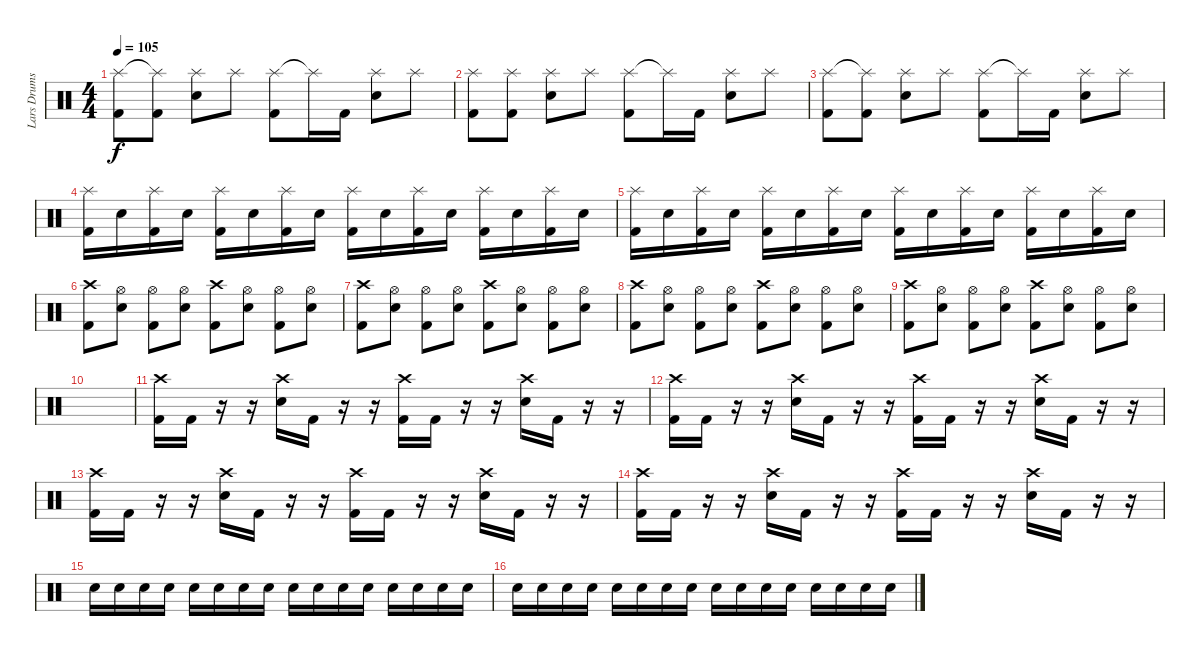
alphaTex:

\track ("Lars Drums" "Lars Drums") {instrument percussion}
\staff {score}
\articulation defaults
\ts (4 4)
\tempo 105
\clef neutral
\ks c
("Splash (hit)" "Kick (hit) 2").8{dy f} ("Splash (hit)"{t} "Kick (hit) 2").8 ("Splash (hit)" "Snare (hit) 2").8 "Splash (hit)".8 ("Splash (hit)" "Kick (hit) 2").8 "Splash (hit)"{t}.16 "Kick (hit) 2".16 ("Splash (hit)" "Snare (hit) 2").8 "Splash (hit)".8 |
("Splash (hit)" "Kick (hit) 2").8 ("Splash (hit)" "Kick (hit) 2").8 ("Splash (hit)" "Snare (hit) 2").8 "Splash (hit)".8 ("Splash (hit)" "Kick (hit) 2").8 "Splash (hit)"{t}.16 "Kick (hit) 2".16 ("Splash (hit)" "Snare (hit) 2").8 "Splash (hit)".8 |
("Splash (hit)" "Kick (hit) 2").8 ("Splash (hit)"{t} "Kick (hit) 2").8 ("Splash (hit)" "Snare (hit) 2").8 "Splash (hit)".8 ("Splash (hit)" "Kick (hit) 2").8 "Splash (hit)"{t}.16 "Kick (hit) 2".16 ("Splash (hit)" "Snare (hit) 2").8 "Splash (hit)".8 |
("Splash (hit)" "Kick (hit) 2").16 "Snare (hit) 2".16 ("Splash (hit)" "Kick (hit) 2").16 "Snare (hit) 2".16 ("Splash (hit)" "Kick (hit) 2").16 "Snare (hit) 2".16 ("Splash (hit)" "Kick (hit) 2").16 "Snare (hit) 2".16 ("Splash (hit)" "Kick (hit) 2").16 "Snare (hit) 2".16 ("Splash (hit)" "Kick (hit) 2").16 "Snare (hit) 2".16 ("Splash (hit)" "Kick (hit) 2").16 "Snare (hit) 2".16 ("Splash (hit)" "Kick (hit) 2").16 "Snare (hit) 2".16 |
("Splash (hit)" "Kick (hit) 2").16 "Snare (hit) 2".16 ("Splash (hit)" "Kick (hit) 2").16 "Snare (hit) 2".16 ("Splash (hit)" "Kick (hit) 2").16 "Snare (hit) 2".16 ("Splash (hit)" "Kick (hit) 2").16 "Snare (hit) 2".16 ("Splash (hit)" "Kick (hit) 2").16 "Snare (hit) 2".16 ("Splash (hit)" "Kick (hit) 2").16 "Snare (hit) 2".16 ("Splash (hit)" "Kick (hit) 2").16 "Snare (hit) 2".16 ("Splash (hit)" "Kick (hit) 2").16 "Snare (hit) 2".16 |
("Crash high (hit)" "Kick (hit) 2").8 ("Hi-Hat (open)" "Snare (hit) 2").8 ("Hi-Hat (open)" "Kick (hit) 2").8 ("Hi-Hat (open)" "Snare (hit) 2").8 ("Crash high (hit)" "Kick (hit) 2").8 ("Hi-Hat (open)" "Snare (hit) 2").8 ("Hi-Hat (open)" "Kick (hit) 2").8 ("Hi-Hat (open)" "Snare (hit) 2").8 |
("Crash high (hit)" "Kick (hit) 2").8 ("Hi-Hat (open)" "Snare (hit) 2").8 ("Hi-Hat (open)" "Kick (hit) 2").8 ("Hi-Hat (open)" "Snare (hit) 2").8 ("Crash high (hit)" "Kick (hit) 2").8 ("Hi-Hat (open)" "Snare (hit) 2").8 ("Hi-Hat (open)" "Kick (hit) 2").8 ("Hi-Hat (open)" "Snare (hit) 2").8 |
("Crash high (hit)" "Kick (hit) 2").8 ("Hi-Hat (open)" "Snare (hit) 2").8 ("Hi-Hat (open)" "Kick (hit) 2").8 ("Hi-Hat (open)" "Snare (hit) 2").8 ("Crash high (hit)" "Kick (hit) 2").8 ("Hi-Hat (open)" "Snare (hit) 2").8 ("Hi-Hat (open)" "Kick (hit) 2").8 ("Hi-Hat (open)" "Snare (hit) 2").8 |
("Crash high (hit)" "Kick (hit) 2").8 ("Hi-Hat (open)" "Snare (hit) 2").8 ("Hi-Hat (open)" "Kick (hit) 2").8 ("Hi-Hat (open)" "Snare (hit) 2").8 ("Crash high (hit)" "Kick (hit) 2").8 ("Hi-Hat (open)" "Snare (hit) 2").8 ("Hi-Hat (open)" "Kick (hit) 2").8 ("Hi-Hat (open)" "Snare (hit) 2").8 |
|
("Crash high (hit)" "Kick (hit) 2").16 "Kick (hit) 2".16 r.16 r.16 ("Crash high (hit)" "Snare (hit) 2").16 "Kick (hit) 2".16 r.16 r.16 ("Crash high (hit)" "Kick (hit) 2").16 "Kick (hit) 2".16 r.16 r.16 ("Crash high (hit)" "Snare (hit) 2").16 "Kick (hit) 2".16 r.16 r.16 |
("Crash high (hit)" "Kick (hit) 2").16 "Kick (hit) 2".16 r.16 r.16 ("Crash high (hit)" "Snare (hit) 2").16 "Kick (hit) 2".16 r.16 r.16 ("Crash high (hit)" "Kick (hit) 2").16 "Kick (hit) 2".16 r.16 r.16 ("Crash high (hit)" "Snare (hit) 2").16 "Kick (hit) 2".16 r.16 r.16 |
("Crash high (hit)" "Kick (hit) 2").16 "Kick (hit) 2".16 r.16 r.16 ("Crash high (hit)" "Snare (hit) 2").16 "Kick (hit) 2".16 r.16 r.16 ("Crash high (hit)" "Kick (hit) 2").16 "Kick (hit) 2".16 r.16 r.16 ("Crash high (hit)" "Snare (hit) 2").16 "Kick (hit) 2".16 r.16 r.16 |
("Crash high (hit)" "Kick (hit) 2").16 "Kick (hit) 2".16 r.16 r.16 ("Crash high (hit)" "Snare (hit) 2").16 "Kick (hit) 2".16 r.16 r.16 ("Crash high (hit)" "Kick (hit) 2").16 "Kick (hit) 2".16 r.16 r.16 ("Crash high (hit)" "Snare (hit) 2").16 "Kick (hit) 2".16 r.16 r.16 |
"Snare (hit) 2".16{volume 7} "Snare (hit) 2".16{volume 16} "Snare (hit) 2".16 "Snare (hit) 2".16 "Snare (hit) 2".16 "Snare (hit) 2".16 "Snare (hit) 2".16 "Snare (hit) 2".16 "Snare (hit) 2".16 "Snare (hit) 2".16 "Snare (hit) 2".16 "Snare (hit) 2".16 "Snare (hit) 2".16 "Snare (hit) 2".16 "Snare (hit) 2".16 "Snare (hit) 2".16 |
"Snare (hit) 2".16 "Snare (hit) 2".16 "Snare (hit) 2".16 "Snare (hit) 2".16 "Snare (hit) 2".16 "Snare (hit) 2".16 "Snare (hit) 2".16 "Snare (hit) 2".16 "Snare (hit) 2".16{volume 16} "Snare (hit) 2".16 "Snare (hit) 2".16 "Snare (hit) 2".16 "Snare (hit) 2".16 "Snare (hit) 2".16 "Snare (hit) 2".16 "Snare (hit) 2".16
